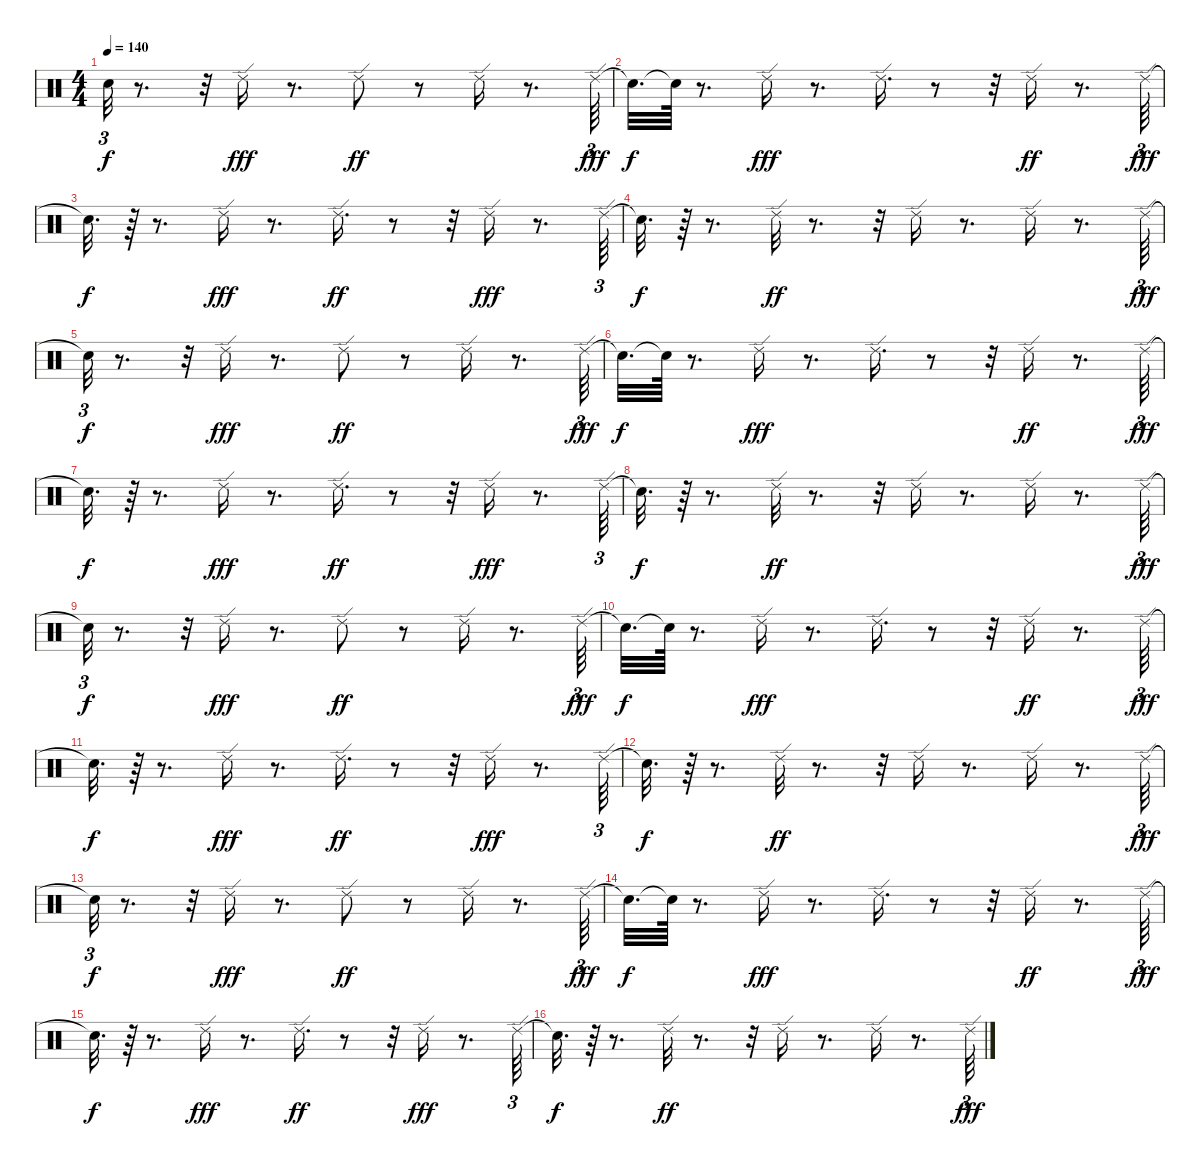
\track "" {instrument percussion}
\staff {score}
\articulation defaults
\ts (4 4)
\tempo 140
\clef neutral
\ks c "Snare (hit)"{t}.32{tu (3 2) dy f}
r.8{d} r.32 "Ride (edge) 2".16{dy fff} r.8{d} "Ride (edge) 2".8{dy ff} r.8 "Ride (edge) 2".16 r.8{d} "Ride (edge) 2".64{tu (3 2) dy fff} |
"Snare (hit)"{t}.32{d dy f} "Snare (hit)"{t}.64 r.8{d} "Ride (edge) 2".16{dy fff} r.8{d} "Ride (edge) 2".16{d} r.8 r.32 "Ride (edge) 2".16{dy ff} r.8{d} "Ride (edge) 2".64{tu (3 2) dy fff} |
"Snare (hit)"{t}.32{d dy f} r.64 r.8{d} "Ride (edge) 2".16{dy fff} r.8{d} "Ride (edge) 2".16{d dy ff} r.8 r.32 "Ride (edge) 2".16{dy fff} r.8{d} "Ride (edge) 2".64{tu (3 2)} |
"Snare (hit)"{t}.32{d dy f} r.64 r.8{d} "Ride (edge) 2".32{dy ff} r.8{d} r.32 "Ride (edge) 2".16 r.8{d} "Ride (edge) 2".16 r.8{d} "Ride (edge) 2".64{tu (3 2) dy fff} |
"Snare (hit)"{t}.32{tu (3 2) dy f} r.8{d} r.32 "Ride (edge) 2".16{dy fff} r.8{d} "Ride (edge) 2".8{dy ff} r.8 "Ride (edge) 2".16 r.8{d} "Ride (edge) 2".64{tu (3 2) dy fff} |
"Snare (hit)"{t}.32{d dy f} "Snare (hit)"{t}.64 r.8{d} "Ride (edge) 2".16{dy fff} r.8{d} "Ride (edge) 2".16{d} r.8 r.32 "Ride (edge) 2".16{dy ff} r.8{d} "Ride (edge) 2".64{tu (3 2) dy fff} |
"Snare (hit)"{t}.32{d dy f} r.64 r.8{d} "Ride (edge) 2".16{dy fff} r.8{d} "Ride (edge) 2".16{d dy ff} r.8 r.32 "Ride (edge) 2".16{dy fff} r.8{d} "Ride (edge) 2".64{tu (3 2)} |
"Snare (hit)"{t}.32{d dy f} r.64 r.8{d} "Ride (edge) 2".32{dy ff} r.8{d} r.32 "Ride (edge) 2".16 r.8{d} "Ride (edge) 2".16 r.8{d} "Ride (edge) 2".64{tu (3 2) dy fff} |
"Snare (hit)"{t}.32{tu (3 2) dy f} r.8{d} r.32 "Ride (edge) 2".16{dy fff} r.8{d} "Ride (edge) 2".8{dy ff} r.8 "Ride (edge) 2".16 r.8{d} "Ride (edge) 2".64{tu (3 2) dy fff} |
"Snare (hit)"{t}.32{d dy f} "Snare (hit)"{t}.64 r.8{d} "Ride (edge) 2".16{dy fff} r.8{d} "Ride (edge) 2".16{d} r.8 r.32 "Ride (edge) 2".16{dy ff} r.8{d} "Ride (edge) 2".64{tu (3 2) dy fff} |
"Snare (hit)"{t}.32{d dy f} r.64 r.8{d} "Ride (edge) 2".16{dy fff} r.8{d} "Ride (edge) 2".16{d dy ff} r.8 r.32 "Ride (edge) 2".16{dy fff} r.8{d} "Ride (edge) 2".64{tu (3 2)} |
"Snare (hit)"{t}.32{d dy f} r.64 r.8{d} "Ride (edge) 2".32{dy ff} r.8{d} r.32 "Ride (edge) 2".16 r.8{d} "Ride (edge) 2".16 r.8{d} "Ride (edge) 2".64{tu (3 2) dy fff} |
"Snare (hit)"{t}.32{tu (3 2) dy f} r.8{d} r.32 "Ride (edge) 2".16{dy fff} r.8{d} "Ride (edge) 2".8{dy ff} r.8 "Ride (edge) 2".16 r.8{d} "Ride (edge) 2".64{tu (3 2) dy fff} |
"Snare (hit)"{t}.32{d dy f} "Snare (hit)"{t}.64 r.8{d} "Ride (edge) 2".16{dy fff} r.8{d} "Ride (edge) 2".16{d} r.8 r.32 "Ride (edge) 2".16{dy ff} r.8{d} "Ride (edge) 2".64{tu (3 2) dy fff} |
"Snare (hit)"{t}.32{d dy f} r.64 r.8{d} "Ride (edge) 2".16{dy fff} r.8{d} "Ride (edge) 2".16{d dy ff} r.8 r.32 "Ride (edge) 2".16{dy fff} r.8{d} "Ride (edge) 2".64{tu (3 2)} |
"Snare (hit)"{t}.32{d dy f} r.64 r.8{d} "Ride (edge) 2".32{dy ff} r.8{d} r.32 "Ride (edge) 2".16 r.8{d} "Ride (edge) 2".16 r.8{d} "Ride (edge) 2".64{tu (3 2) dy fff}
